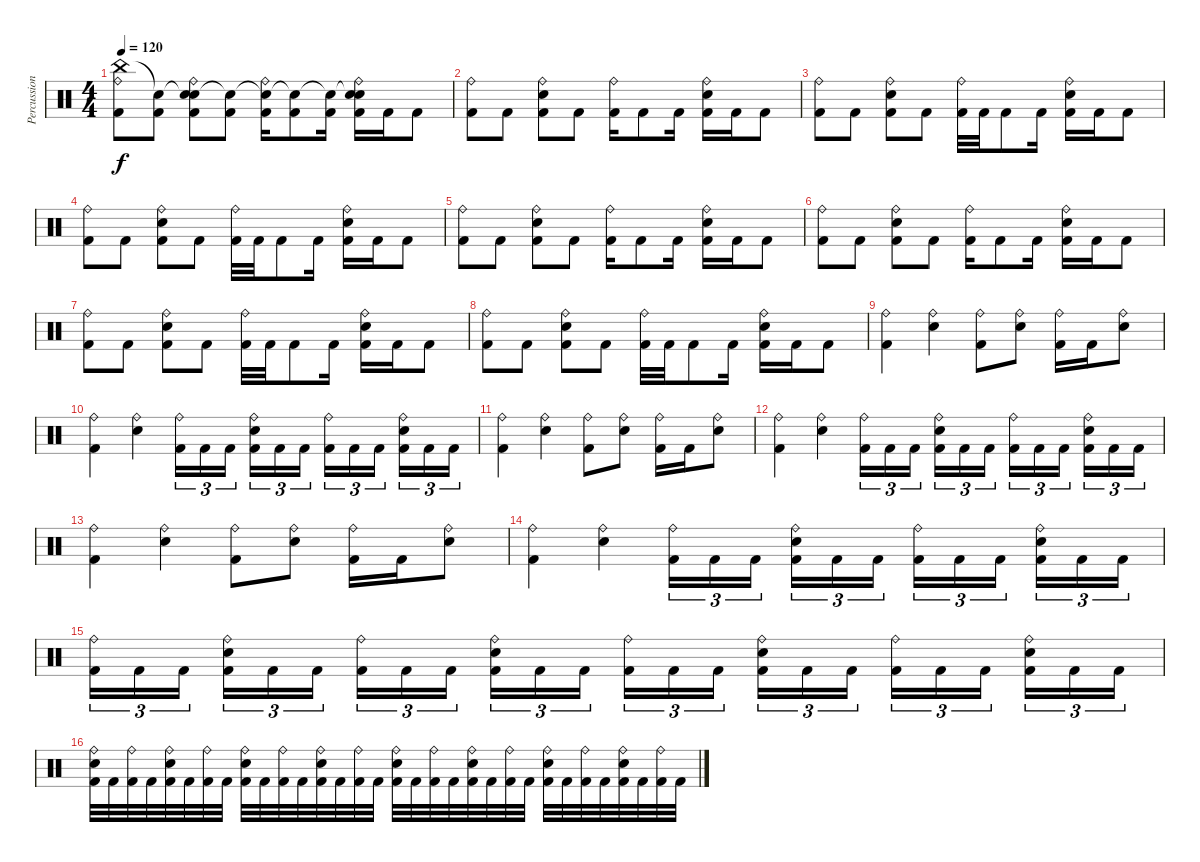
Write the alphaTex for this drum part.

\track ("Percussion" "Percussion") {instrument percussion}
\staff {score}
\articulation defaults
\ts (4 4)
\tempo 120
\clef neutral
\ks c
("China (hit)" "Ride (bell)" "Kick (hit) 2").8{dy f} ("Snare (hit)"{t} "Kick (hit) 2").8 ("Snare (hit)"{t} "Ride (bell)" "Snare (hit) 2" "Kick (hit) 2").8 ("Snare (hit)"{t} "Kick (hit) 2").8 ("Snare (hit)"{t} "Ride (bell)" "Kick (hit) 2").16 ("Snare (hit)"{t} "Kick (hit) 2").8 ("Snare (hit)"{t} "Kick (hit) 2").16 ("Snare (hit)"{t} "Ride (bell)" "Snare (hit) 2" "Kick (hit) 2").16 "Kick (hit) 2".16 "Kick (hit) 2".8 |
("Ride (bell)" "Kick (hit) 2").8 "Kick (hit) 2".8 ("Ride (bell)" "Snare (hit) 2" "Kick (hit) 2").8 "Kick (hit) 2".8 ("Ride (bell)" "Kick (hit) 2").16 "Kick (hit) 2".8 "Kick (hit) 2".16 ("Ride (bell)" "Snare (hit) 2" "Kick (hit) 2").16 "Kick (hit) 2".16 "Kick (hit) 2".8 |
("Ride (bell)" "Kick (hit) 2").8 "Kick (hit) 2".8 ("Ride (bell)" "Snare (hit) 2" "Kick (hit) 2").8 "Kick (hit) 2".8 ("Ride (bell)" "Kick (hit) 2").32 "Kick (hit) 2".32 "Kick (hit) 2".8 "Kick (hit) 2".16 ("Ride (bell)" "Snare (hit) 2" "Kick (hit) 2").16 "Kick (hit) 2".16 "Kick (hit) 2".8 |
("Ride (bell)" "Kick (hit) 2").8 "Kick (hit) 2".8 ("Ride (bell)" "Snare (hit) 2" "Kick (hit) 2").8 "Kick (hit) 2".8 ("Ride (bell)" "Kick (hit) 2").32 "Kick (hit) 2".32 "Kick (hit) 2".8 "Kick (hit) 2".16 ("Ride (bell)" "Snare (hit) 2" "Kick (hit) 2").16 "Kick (hit) 2".16 "Kick (hit) 2".8 |
("Ride (bell)" "Kick (hit) 2").8 "Kick (hit) 2".8 ("Ride (bell)" "Snare (hit) 2" "Kick (hit) 2").8 "Kick (hit) 2".8 ("Ride (bell)" "Kick (hit) 2").16 "Kick (hit) 2".8 "Kick (hit) 2".16 ("Ride (bell)" "Snare (hit) 2" "Kick (hit) 2").16 "Kick (hit) 2".16 "Kick (hit) 2".8 |
("Ride (bell)" "Kick (hit) 2").8 "Kick (hit) 2".8 ("Ride (bell)" "Snare (hit) 2" "Kick (hit) 2").8 "Kick (hit) 2".8 ("Ride (bell)" "Kick (hit) 2").16 "Kick (hit) 2".8 "Kick (hit) 2".16 ("Ride (bell)" "Snare (hit) 2" "Kick (hit) 2").16 "Kick (hit) 2".16 "Kick (hit) 2".8 |
("Ride (bell)" "Kick (hit) 2").8 "Kick (hit) 2".8 ("Ride (bell)" "Snare (hit) 2" "Kick (hit) 2").8 "Kick (hit) 2".8 ("Ride (bell)" "Kick (hit) 2").32 "Kick (hit) 2".32 "Kick (hit) 2".8 "Kick (hit) 2".16 ("Ride (bell)" "Snare (hit) 2" "Kick (hit) 2").16 "Kick (hit) 2".16 "Kick (hit) 2".8 |
("Ride (bell)" "Kick (hit) 2").8 "Kick (hit) 2".8 ("Ride (bell)" "Snare (hit) 2" "Kick (hit) 2").8 "Kick (hit) 2".8 ("Ride (bell)" "Kick (hit) 2").32 "Kick (hit) 2".32 "Kick (hit) 2".8 "Kick (hit) 2".16 ("Ride (bell)" "Snare (hit) 2" "Kick (hit) 2").16 "Kick (hit) 2".16 "Kick (hit) 2".8 |
("Ride (bell)" "Kick (hit) 2").4 ("Ride (bell)" "Snare (hit) 2").4 ("Ride (bell)" "Kick (hit) 2").8 ("Ride (bell)" "Snare (hit) 2").8 ("Ride (bell)" "Kick (hit) 2").16 "Kick (hit) 2".16 ("Ride (bell)" "Snare (hit) 2").8 |
("Ride (bell)" "Kick (hit) 2").4 ("Ride (bell)" "Snare (hit) 2").4 ("Ride (bell)" "Kick (hit) 2").16{tu (3 2)} "Kick (hit) 2".16{tu (3 2)} "Kick (hit) 2".16{tu (3 2)} ("Ride (bell)" "Snare (hit) 2" "Kick (hit) 2").16{tu (3 2)} "Kick (hit) 2".16{tu (3 2)} "Kick (hit) 2".16{tu (3 2)} ("Ride (bell)" "Kick (hit) 2").16{tu (3 2)} "Kick (hit) 2".16{tu (3 2)} "Kick (hit) 2".16{tu (3 2)} ("Ride (bell)" "Snare (hit) 2" "Kick (hit) 2").16{tu (3 2)} "Kick (hit) 2".16{tu (3 2)} "Kick (hit) 2".16{tu (3 2)} |
("Ride (bell)" "Kick (hit) 2").4 ("Ride (bell)" "Snare (hit) 2").4 ("Ride (bell)" "Kick (hit) 2").8 ("Ride (bell)" "Snare (hit) 2").8 ("Ride (bell)" "Kick (hit) 2").16 "Kick (hit) 2".16 ("Ride (bell)" "Snare (hit) 2").8 |
("Ride (bell)" "Kick (hit) 2").4 ("Ride (bell)" "Snare (hit) 2").4 ("Ride (bell)" "Kick (hit) 2").16{tu (3 2)} "Kick (hit) 2".16{tu (3 2)} "Kick (hit) 2".16{tu (3 2)} ("Ride (bell)" "Snare (hit) 2" "Kick (hit) 2").16{tu (3 2)} "Kick (hit) 2".16{tu (3 2)} "Kick (hit) 2".16{tu (3 2)} ("Ride (bell)" "Kick (hit) 2").16{tu (3 2)} "Kick (hit) 2".16{tu (3 2)} "Kick (hit) 2".16{tu (3 2)} ("Ride (bell)" "Snare (hit) 2" "Kick (hit) 2").16{tu (3 2)} "Kick (hit) 2".16{tu (3 2)} "Kick (hit) 2".16{tu (3 2)} |
("Ride (bell)" "Kick (hit) 2").4 ("Ride (bell)" "Snare (hit) 2").4 ("Ride (bell)" "Kick (hit) 2").8 ("Ride (bell)" "Snare (hit) 2").8 ("Ride (bell)" "Kick (hit) 2").16 "Kick (hit) 2".16 ("Ride (bell)" "Snare (hit) 2").8 |
("Ride (bell)" "Kick (hit) 2").4 ("Ride (bell)" "Snare (hit) 2").4 ("Ride (bell)" "Kick (hit) 2").16{tu (3 2)} "Kick (hit) 2".16{tu (3 2)} "Kick (hit) 2".16{tu (3 2)} ("Ride (bell)" "Snare (hit) 2" "Kick (hit) 2").16{tu (3 2)} "Kick (hit) 2".16{tu (3 2)} "Kick (hit) 2".16{tu (3 2)} ("Ride (bell)" "Kick (hit) 2").16{tu (3 2)} "Kick (hit) 2".16{tu (3 2)} "Kick (hit) 2".16{tu (3 2)} ("Ride (bell)" "Snare (hit) 2" "Kick (hit) 2").16{tu (3 2)} "Kick (hit) 2".16{tu (3 2)} "Kick (hit) 2".16{tu (3 2)} |
("Ride (bell)" "Kick (hit) 2").16{tu (3 2)} "Kick (hit) 2".16{tu (3 2)} "Kick (hit) 2".16{tu (3 2)} ("Ride (bell)" "Snare (hit) 2" "Kick (hit) 2").16{tu (3 2)} "Kick (hit) 2".16{tu (3 2)} "Kick (hit) 2".16{tu (3 2)} ("Ride (bell)" "Kick (hit) 2").16{tu (3 2)} "Kick (hit) 2".16{tu (3 2)} "Kick (hit) 2".16{tu (3 2)} ("Ride (bell)" "Snare (hit) 2" "Kick (hit) 2").16{tu (3 2)} "Kick (hit) 2".16{tu (3 2)} "Kick (hit) 2".16{tu (3 2)} ("Ride (bell)" "Kick (hit) 2").16{tu (3 2)} "Kick (hit) 2".16{tu (3 2)} "Kick (hit) 2".16{tu (3 2)} ("Ride (bell)" "Snare (hit) 2" "Kick (hit) 2").16{tu (3 2)} "Kick (hit) 2".16{tu (3 2)} "Kick (hit) 2".16{tu (3 2)} ("Ride (bell)" "Kick (hit) 2").16{tu (3 2)} "Kick (hit) 2".16{tu (3 2)} "Kick (hit) 2".16{tu (3 2)} ("Ride (bell)" "Snare (hit) 2" "Kick (hit) 2").16{tu (3 2)} "Kick (hit) 2".16{tu (3 2)} "Kick (hit) 2".16{tu (3 2)} |
("Ride (bell)" "Snare (hit) 2" "Kick (hit) 2").32 "Kick (hit) 2".32 ("Ride (bell)" "Kick (hit) 2").32 "Kick (hit) 2".32 ("Ride (bell)" "Snare (hit) 2" "Kick (hit) 2").32 "Kick (hit) 2".32 ("Ride (bell)" "Kick (hit) 2").32 "Kick (hit) 2".32 ("Ride (bell)" "Snare (hit) 2" "Kick (hit) 2").32 "Kick (hit) 2".32 ("Ride (bell)" "Kick (hit) 2").32 "Kick (hit) 2".32 ("Ride (bell)" "Snare (hit) 2" "Kick (hit) 2").32 "Kick (hit) 2".32 ("Ride (bell)" "Kick (hit) 2").32 "Kick (hit) 2".32 ("Ride (bell)" "Snare (hit) 2" "Kick (hit) 2").32 "Kick (hit) 2".32 ("Ride (bell)" "Kick (hit) 2").32 "Kick (hit) 2".32 ("Ride (bell)" "Snare (hit) 2" "Kick (hit) 2").32 "Kick (hit) 2".32 ("Ride (bell)" "Kick (hit) 2").32 "Kick (hit) 2".32 ("Ride (bell)" "Snare (hit) 2" "Kick (hit) 2").32 "Kick (hit) 2".32 ("Ride (bell)" "Kick (hit) 2").32 "Kick (hit) 2".32 ("Ride (bell)" "Snare (hit) 2" "Kick (hit) 2").32 "Kick (hit) 2".32 ("Ride (bell)" "Kick (hit) 2").32 "Kick (hit) 2".32
